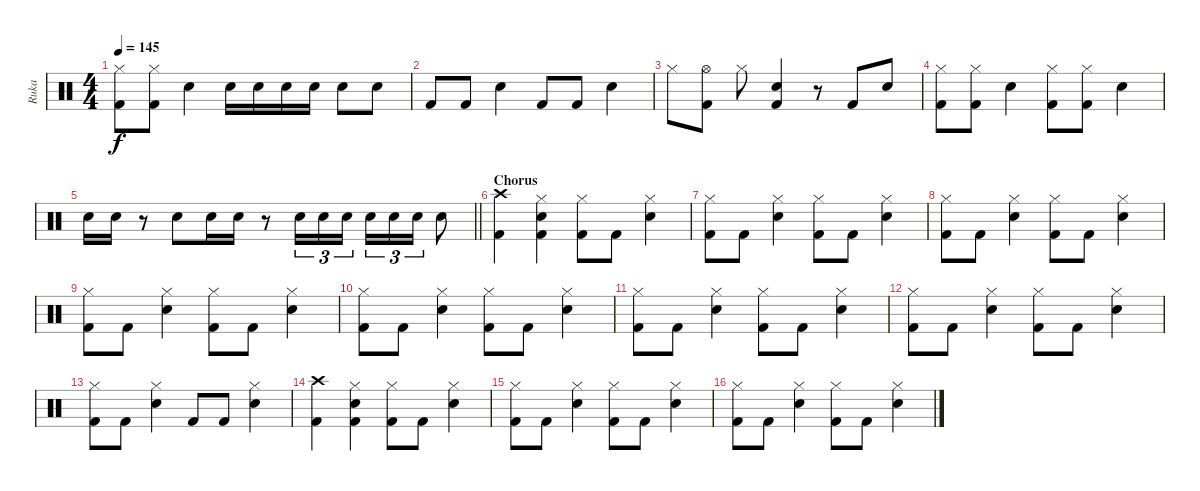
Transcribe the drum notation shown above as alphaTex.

\track ("Ruka" "Ruka") {instrument percussion}
\staff {score}
\articulation defaults
\ts (4 4)
\tempo 145
\clef neutral
\ks c
("Hi-Hat (closed)" "Kick (hit) 2").8{dy f} ("Hi-Hat (closed)" "Kick (hit) 2").8 "Electric Snare (hit)".4 "Electric Snare (hit)".16 "Electric Snare (hit)".16 "Electric Snare (hit)".16 "Electric Snare (hit)".16 "Electric Snare (hit)".8 "Electric Snare (hit)".8 |
"Kick (hit) 2".8 "Kick (hit) 2".8 "Electric Snare (hit)".4 "Kick (hit) 2".8 "Kick (hit) 2".8 "Electric Snare (hit)".4 |
"Hi-Hat (closed)".8 ("Hi-Hat (open)" "Kick (hit) 2").8 "Hi-Hat (closed)".8 ("Electric Snare (hit)" "Kick (hit) 2").4 r.8 "Kick (hit) 2".8 "Electric Snare (hit)".8 |
("Hi-Hat (closed)" "Kick (hit) 2").8 ("Hi-Hat (closed)" "Kick (hit) 2").8 "Electric Snare (hit)".4 ("Hi-Hat (closed)" "Kick (hit) 2").8 ("Hi-Hat (closed)" "Kick (hit) 2").8 "Electric Snare (hit)".4 |
\barLineRight lightlight "Electric Snare (hit)".16 "Electric Snare (hit)".16
r.8 "Electric Snare (hit)".8 "Electric Snare (hit)".16 "Electric Snare (hit)".16 r.8 "Electric Snare (hit)".16{tu (3 2)} "Electric Snare (hit)".16{tu (3 2)} "Electric Snare (hit)".16{tu (3 2)} "Electric Snare (hit)".16{tu (3 2)} "Electric Snare (hit)".16{tu (3 2)} "Electric Snare (hit)".16{tu (3 2)} "Electric Snare (hit)".8 |
\section ("" "Chorus")
("Crash high (hit)" "Kick (hit) 2").4 ("Hi-Hat (closed)" "Electric Snare (hit)" "Kick (hit) 2").4 ("Hi-Hat (closed)" "Kick (hit) 2").8 "Kick (hit) 2".8 ("Hi-Hat (closed)" "Electric Snare (hit)").4 |
("Hi-Hat (closed)" "Kick (hit) 2").8 "Kick (hit) 2".8 ("Hi-Hat (closed)" "Electric Snare (hit)").4 ("Hi-Hat (closed)" "Kick (hit) 2").8 "Kick (hit) 2".8 ("Hi-Hat (closed)" "Electric Snare (hit)").4 |
("Hi-Hat (closed)" "Kick (hit) 2").8 "Kick (hit) 2".8 ("Hi-Hat (closed)" "Electric Snare (hit)").4 ("Hi-Hat (closed)" "Kick (hit) 2").8 "Kick (hit) 2".8 ("Hi-Hat (closed)" "Electric Snare (hit)").4 |
("Hi-Hat (closed)" "Kick (hit) 2").8 "Kick (hit) 2".8 ("Hi-Hat (closed)" "Electric Snare (hit)").4 ("Hi-Hat (closed)" "Kick (hit) 2").8 "Kick (hit) 2".8 ("Hi-Hat (closed)" "Electric Snare (hit)").4 |
("Hi-Hat (closed)" "Kick (hit) 2").8 "Kick (hit) 2".8 ("Hi-Hat (closed)" "Electric Snare (hit)").4 ("Hi-Hat (closed)" "Kick (hit) 2").8 "Kick (hit) 2".8 ("Hi-Hat (closed)" "Electric Snare (hit)").4 |
("Hi-Hat (closed)" "Kick (hit) 2").8 "Kick (hit) 2".8 ("Hi-Hat (closed)" "Electric Snare (hit)").4 ("Hi-Hat (closed)" "Kick (hit) 2").8 "Kick (hit) 2".8 ("Hi-Hat (closed)" "Electric Snare (hit)").4 |
("Hi-Hat (closed)" "Kick (hit) 2").8 "Kick (hit) 2".8 ("Hi-Hat (closed)" "Electric Snare (hit)").4 ("Hi-Hat (closed)" "Kick (hit) 2").8 "Kick (hit) 2".8 ("Hi-Hat (closed)" "Electric Snare (hit)").4 |
("Hi-Hat (closed)" "Kick (hit) 2").8 "Kick (hit) 2".8 ("Hi-Hat (closed)" "Electric Snare (hit)").4 "Kick (hit) 2".8 "Kick (hit) 2".8 ("Hi-Hat (closed)" "Electric Snare (hit)").4 |
("Crash high (hit)" "Kick (hit) 2").4 ("Hi-Hat (closed)" "Electric Snare (hit)" "Kick (hit) 2").4 ("Hi-Hat (closed)" "Kick (hit) 2").8 "Kick (hit) 2".8 ("Hi-Hat (closed)" "Electric Snare (hit)").4 |
("Hi-Hat (closed)" "Kick (hit) 2").8 "Kick (hit) 2".8 ("Hi-Hat (closed)" "Electric Snare (hit)").4 ("Hi-Hat (closed)" "Kick (hit) 2").8 "Kick (hit) 2".8 ("Hi-Hat (closed)" "Electric Snare (hit)").4 |
("Hi-Hat (closed)" "Kick (hit) 2").8 "Kick (hit) 2".8 ("Hi-Hat (closed)" "Electric Snare (hit)").4 ("Hi-Hat (closed)" "Kick (hit) 2").8 "Kick (hit) 2".8 ("Hi-Hat (closed)" "Electric Snare (hit)").4
